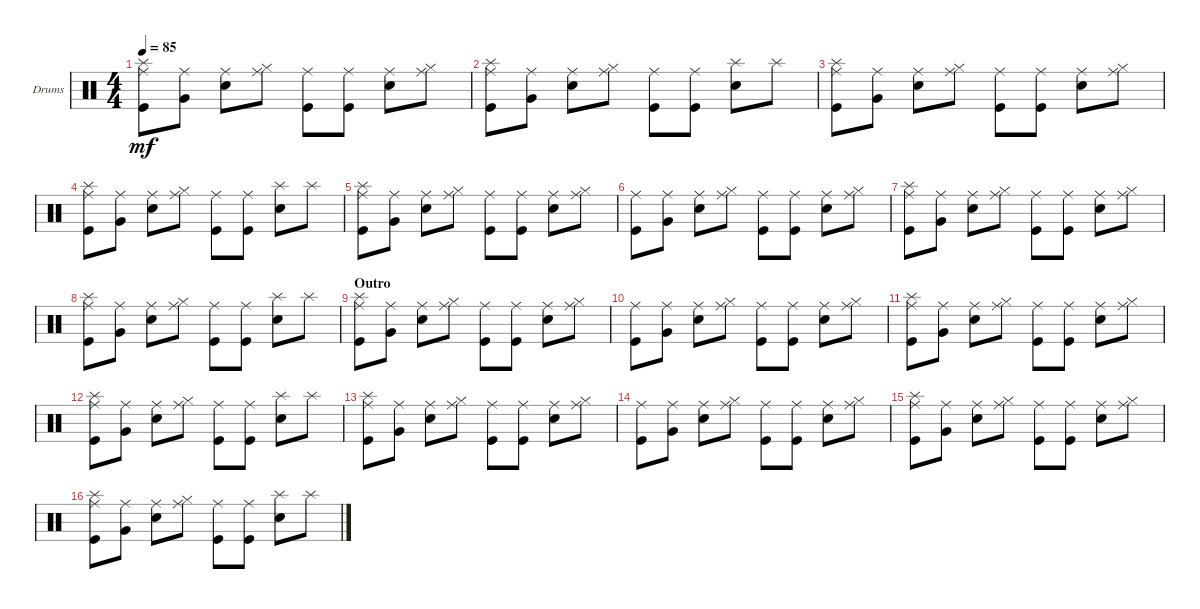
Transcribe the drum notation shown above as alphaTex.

\defaultSystemsLayout 4
\bracketExtendMode groupsimilarinstruments
\firstSystemTrackNameOrientation horizontal
\otherSystemsTrackNameOrientation horizontal
\track ("Drumkit" "Drums") {instrument percussion}
\staff {score}
\articulation defaults
\ts (4 4)
\tempo 85
\clef neutral
\ks c
("Splash (hit)" "Kick (hit)" "Ride (middle)").8{dy mf} ("Very Low Tom (hit)" "Ride (middle)").8 ("Snare (hit) 2" "Ride (middle)").8 ("Hi-Hat (closed)" "Ride (middle)").8 ("Kick (hit)" "Ride (middle)").8 ("Ride (middle)" "Kick (hit)").8 ("Snare (hit) 2" "Ride (middle)").8 ("Hi-Hat (closed)" "Ride (middle)").8 |
("Splash (hit)" "Kick (hit)" "Ride (middle)").8 ("Very Low Tom (hit)" "Ride (middle)").8 ("Snare (hit) 2" "Ride (middle)").8 ("Hi-Hat (closed)" "Ride (middle)").8 ("Kick (hit)" "Ride (middle)").8 ("Ride (middle)" "Kick (hit)").8 ("Snare (hit) 2" "Splash (hit)").8 "Splash (hit)".8 |
("Splash (hit)" "Kick (hit)" "Ride (middle)").8 ("Very Low Tom (hit)" "Ride (middle)").8 ("Snare (hit) 2" "Ride (middle)").8 ("Hi-Hat (closed)" "Ride (middle)").8 ("Kick (hit)" "Ride (middle)").8 ("Ride (middle)" "Kick (hit)").8 ("Snare (hit) 2" "Ride (middle)").8 ("Hi-Hat (closed)" "Ride (middle)").8 |
("Splash (hit)" "Kick (hit)" "Ride (middle)").8 ("Very Low Tom (hit)" "Ride (middle)").8 ("Snare (hit) 2" "Ride (middle)").8 ("Hi-Hat (closed)" "Ride (middle)").8 ("Kick (hit)" "Ride (middle)").8 ("Ride (middle)" "Kick (hit)").8 ("Snare (hit) 2" "Splash (hit)").8 "Splash (hit)".8 |
("Splash (hit)" "Kick (hit)" "Ride (middle)").8 ("Very Low Tom (hit)" "Ride (middle)").8 ("Snare (hit) 2" "Ride (middle)").8 ("Hi-Hat (closed)" "Ride (middle)").8 ("Kick (hit)" "Ride (middle)").8 ("Ride (middle)" "Kick (hit)").8 ("Snare (hit) 2" "Ride (middle)").8 ("Hi-Hat (closed)" "Ride (middle)").8 |
("Kick (hit)" "Ride (middle)").8 ("Very Low Tom (hit)" "Ride (middle)").8 ("Snare (hit) 2" "Ride (middle)").8 ("Hi-Hat (closed)" "Ride (middle)").8 ("Kick (hit)" "Ride (middle)").8 ("Ride (middle)" "Kick (hit)").8 ("Snare (hit) 2" "Ride (middle)").8 ("Hi-Hat (closed)" "Ride (middle)").8 |
("Splash (hit)" "Kick (hit)" "Ride (middle)").8 ("Very Low Tom (hit)" "Ride (middle)").8 ("Snare (hit) 2" "Ride (middle)").8 ("Hi-Hat (closed)" "Ride (middle)").8 ("Kick (hit)" "Ride (middle)").8 ("Ride (middle)" "Kick (hit)").8 ("Snare (hit) 2" "Ride (middle)").8 ("Hi-Hat (closed)" "Ride (middle)").8 |
("Splash (hit)" "Kick (hit)" "Ride (middle)").8 ("Very Low Tom (hit)" "Ride (middle)").8 ("Snare (hit) 2" "Ride (middle)").8 ("Hi-Hat (closed)" "Ride (middle)").8 ("Kick (hit)" "Ride (middle)").8 ("Ride (middle)" "Kick (hit)").8 ("Snare (hit) 2" "Splash (hit)").8 "Splash (hit)".8 |
\section ("" "Outro")
\scale
0.333333 ("Splash (hit)" "Kick (hit)" "Ride (middle)").8 ("Very Low Tom (hit)" "Ride (middle)").8 ("Snare (hit) 2" "Ride (middle)").8 ("Hi-Hat (closed)" "Ride (middle)").8 ("Kick (hit)" "Ride (middle)").8 ("Ride (middle)" "Kick (hit)").8 ("Snare (hit) 2" "Ride (middle)").8 ("Hi-Hat (closed)" "Ride (middle)").8 |
\scale
0.333333 ("Kick (hit)" "Ride (middle)").8 ("Very Low Tom (hit)" "Ride (middle)").8 ("Snare (hit) 2" "Ride (middle)").8 ("Hi-Hat (closed)" "Ride (middle)").8 ("Kick (hit)" "Ride (middle)").8 ("Ride (middle)" "Kick (hit)").8 ("Snare (hit) 2" "Ride (middle)").8 ("Hi-Hat (closed)" "Ride (middle)").8 |
\scale
0.333333 ("Splash (hit)" "Kick (hit)" "Ride (middle)").8 ("Very Low Tom (hit)" "Ride (middle)").8 ("Snare (hit) 2" "Ride (middle)").8 ("Hi-Hat (closed)" "Ride (middle)").8 ("Kick (hit)" "Ride (middle)").8 ("Ride (middle)" "Kick (hit)").8 ("Snare (hit) 2" "Ride (middle)").8 ("Hi-Hat (closed)" "Ride (middle)").8 |
\scale
0.333333 ("Splash (hit)" "Kick (hit)" "Ride (middle)").8 ("Very Low Tom (hit)" "Ride (middle)").8 ("Snare (hit) 2" "Ride (middle)").8 ("Hi-Hat (closed)" "Ride (middle)").8 ("Kick (hit)" "Ride (middle)").8 ("Ride (middle)" "Kick (hit)").8 ("Snare (hit) 2" "Splash (hit)").8 "Splash (hit)".8 |
\scale
0.333333 ("Splash (hit)" "Kick (hit)" "Ride (middle)").8 ("Very Low Tom (hit)" "Ride (middle)").8 ("Snare (hit) 2" "Ride (middle)").8 ("Hi-Hat (closed)" "Ride (middle)").8 ("Kick (hit)" "Ride (middle)").8 ("Ride (middle)" "Kick (hit)").8 ("Snare (hit) 2" "Ride (middle)").8 ("Hi-Hat (closed)" "Ride (middle)").8 |
\scale
0.333333 ("Kick (hit)" "Ride (middle)").8 ("Very Low Tom (hit)" "Ride (middle)").8 ("Snare (hit) 2" "Ride (middle)").8 ("Hi-Hat (closed)" "Ride (middle)").8 ("Kick (hit)" "Ride (middle)").8 ("Ride (middle)" "Kick (hit)").8 ("Snare (hit) 2" "Ride (middle)").8 ("Hi-Hat (closed)" "Ride (middle)").8 |
\scale
0.333333 ("Splash (hit)" "Kick (hit)" "Ride (middle)").8 ("Very Low Tom (hit)" "Ride (middle)").8 ("Snare (hit) 2" "Ride (middle)").8 ("Hi-Hat (closed)" "Ride (middle)").8 ("Kick (hit)" "Ride (middle)").8 ("Ride (middle)" "Kick (hit)").8 ("Snare (hit) 2" "Ride (middle)").8 ("Hi-Hat (closed)" "Ride (middle)").8 |
\scale
0.333333 ("Splash (hit)" "Kick (hit)" "Ride (middle)").8 ("Very Low Tom (hit)" "Ride (middle)").8 ("Snare (hit) 2" "Ride (middle)").8 ("Hi-Hat (closed)" "Ride (middle)").8 ("Kick (hit)" "Ride (middle)").8 ("Ride (middle)" "Kick (hit)").8 ("Snare (hit) 2" "Splash (hit)").8 "Splash (hit)".8
